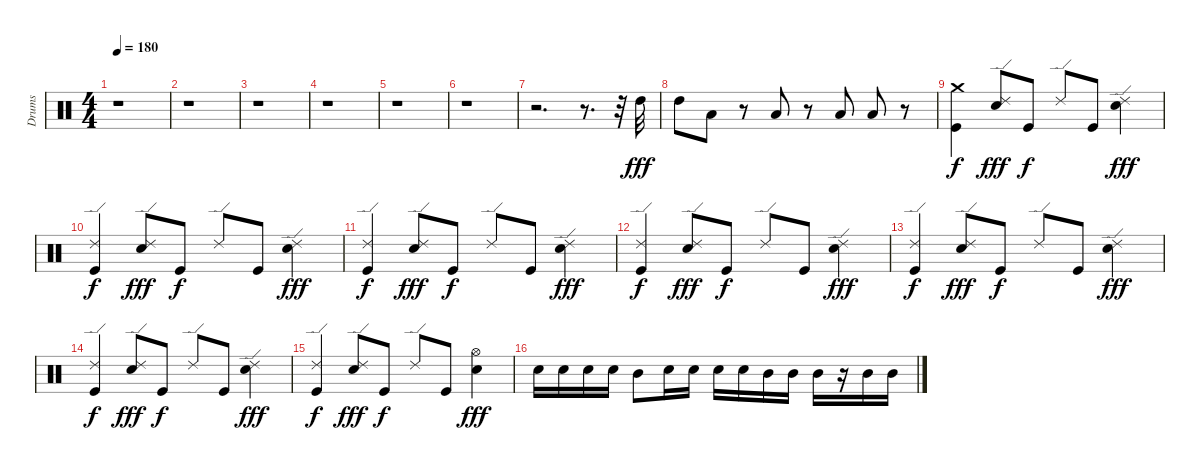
\track ("Drums" "Drums") {instrument percussion}
\staff {score}
\articulation defaults
\ts (4 4)
\tempo 180
\clef neutral
\ks c
r.1{dy fff} |
r.1 |
r.1 |
r.1 |
r.1 |
r.1 |
r.2{d} r.8{d} r.32 "High Tom (hit)".32 |
"High Tom (hit)".8 "Low Tom (hit)".8 r.8 "Low Tom (hit)".8 r.8 "Low Tom (hit)".8 "Low Tom (hit)".8 r.8 |
("Crash medium (hit)" "Kick (hit)").4{dy f} ("Ride (edge) 2" "Snare (hit) 2").8{dy fff} "Kick (hit)".8{dy f} "Ride (edge) 2".8 "Kick (hit)".8 ("Snare (hit) 2" "Ride (edge) 2").4{dy fff} |
("Ride (edge) 2" "Kick (hit)").4{dy f} ("Ride (edge) 2" "Snare (hit) 2").8{dy fff} "Kick (hit)".8{dy f} "Ride (edge) 2".8 "Kick (hit)".8 ("Snare (hit) 2" "Ride (edge) 2").4{dy fff} |
("Ride (edge) 2" "Kick (hit)").4{dy f} ("Ride (edge) 2" "Snare (hit) 2").8{dy fff} "Kick (hit)".8{dy f} "Ride (edge) 2".8 "Kick (hit)".8 ("Snare (hit) 2" "Ride (edge) 2").4{dy fff} |
("Ride (edge) 2" "Kick (hit)").4{dy f} ("Ride (edge) 2" "Snare (hit) 2").8{dy fff} "Kick (hit)".8{dy f} "Ride (edge) 2".8 "Kick (hit)".8 ("Snare (hit) 2" "Ride (edge) 2").4{dy fff} |
("Ride (edge) 2" "Kick (hit)").4{dy f} ("Ride (edge) 2" "Snare (hit) 2").8{dy fff} "Kick (hit)".8{dy f} "Ride (edge) 2".8 "Kick (hit)".8 ("Snare (hit) 2" "Ride (edge) 2").4{dy fff} |
("Ride (edge) 2" "Kick (hit)").4{dy f} ("Ride (edge) 2" "Snare (hit) 2").8{dy fff} "Kick (hit)".8{dy f} "Ride (edge) 2".8 "Kick (hit)".8 ("Snare (hit) 2" "Ride (edge) 2").4{dy fff} |
("Ride (edge) 2" "Kick (hit)").4{dy f} ("Ride (edge) 2" "Snare (hit) 2").8{dy fff} "Kick (hit)".8{dy f} "Ride (edge) 2".8 "Kick (hit)".8 ("Snare (hit) 2" "Hi-Hat (open)").4{dy fff} |
"Snare (hit) 2".16 "Snare (hit) 2".16 "Snare (hit) 2".16 "Snare (hit) 2".16 "Mid Tom (hit)".8 "Snare (hit) 2".16 "Snare (hit) 2".16 "Snare (hit) 2".16 "Snare (hit) 2".16 "Mid Tom (hit)".16 "Mid Tom (hit)".16 "Mid Tom (hit)".16 r.16 "Mid Tom (hit)".16 "Mid Tom (hit)".16
